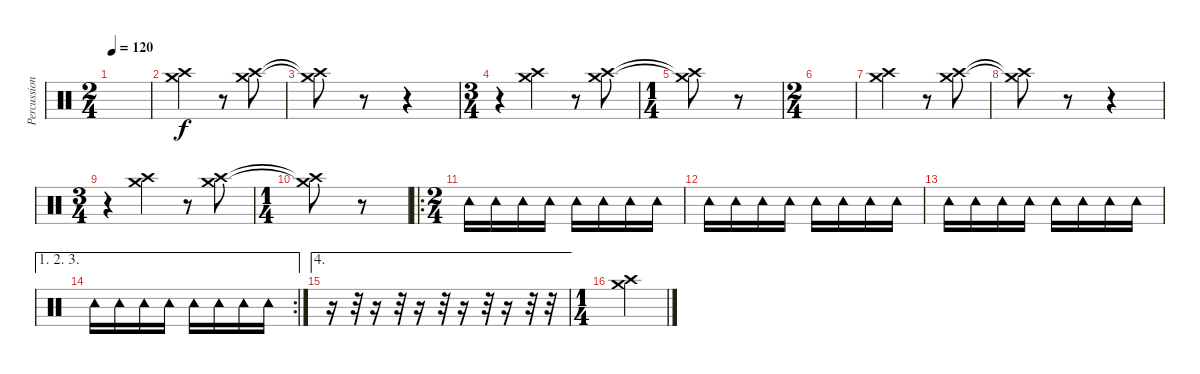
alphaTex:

\track ("Percussion 2" "Percussion") {instrument percussion}
\staff {score}
\articulation defaults
\ts (2 4)
\tempo 120
\clef neutral
\ks c
|
("Crash high (hit)" "Crash medium (hit)").4 r.8 ("Crash high (hit)" "Crash medium (hit)").8 |
("Crash high (hit)"{t} "Crash medium (hit)"{t}).8 r.8 r.4 |
\ts (3 4)
r.4 ("Crash high (hit)" "Crash medium (hit)").4 r.8 ("Crash high (hit)" "Crash medium (hit)").8 |
\ts (1 4)
("Crash high (hit)"{t} "Crash medium (hit)"{t}).8 r.8 |
\ts (2 4)
|
("Crash high (hit)" "Crash medium (hit)").4 r.8 ("Crash high (hit)" "Crash medium (hit)").8 |
("Crash high (hit)"{t} "Crash medium (hit)"{t}).8 r.8 r.4 |
\ts (3 4)
r.4 ("Crash high (hit)" "Crash medium (hit)").4 r.8 ("Crash high (hit)" "Crash medium (hit)").8 |
\ts (1 4)
("Crash high (hit)"{t} "Crash medium (hit)"{t}).8 r.8 |
\ro
\ts (2 4)
"Tambourine (hit)".16 "Tambourine (hit)".16 "Tambourine (hit)".16 "Tambourine (hit)".16 "Tambourine (hit)".16 "Tambourine (hit)".16 "Tambourine (hit)".16 "Tambourine (hit)".16 |
"Tambourine (hit)".16 "Tambourine (hit)".16 "Tambourine (hit)".16 "Tambourine (hit)".16 "Tambourine (hit)".16 "Tambourine (hit)".16 "Tambourine (hit)".16 "Tambourine (hit)".16 |
"Tambourine (hit)".16 "Tambourine (hit)".16 "Tambourine (hit)".16 "Tambourine (hit)".16 "Tambourine (hit)".16 "Tambourine (hit)".16 "Tambourine (hit)".16 "Tambourine (hit)".16 |
\ae (1 2 3)
\rc 2 "Tambourine (hit)".16 "Tambourine (hit)".16 "Tambourine (hit)".16 "Tambourine (hit)".16 "Tambourine (hit)".16 "Tambourine (hit)".16 "Tambourine (hit)".16 "Tambourine (hit)".16
|
\ae 4
r.16 r.32 r.16 r.32 r.16 r.32 r.16 r.32 r.16 r.32 r.32 |
\ts (1 4)
("Crash high (hit)" "Crash medium (hit)").4
